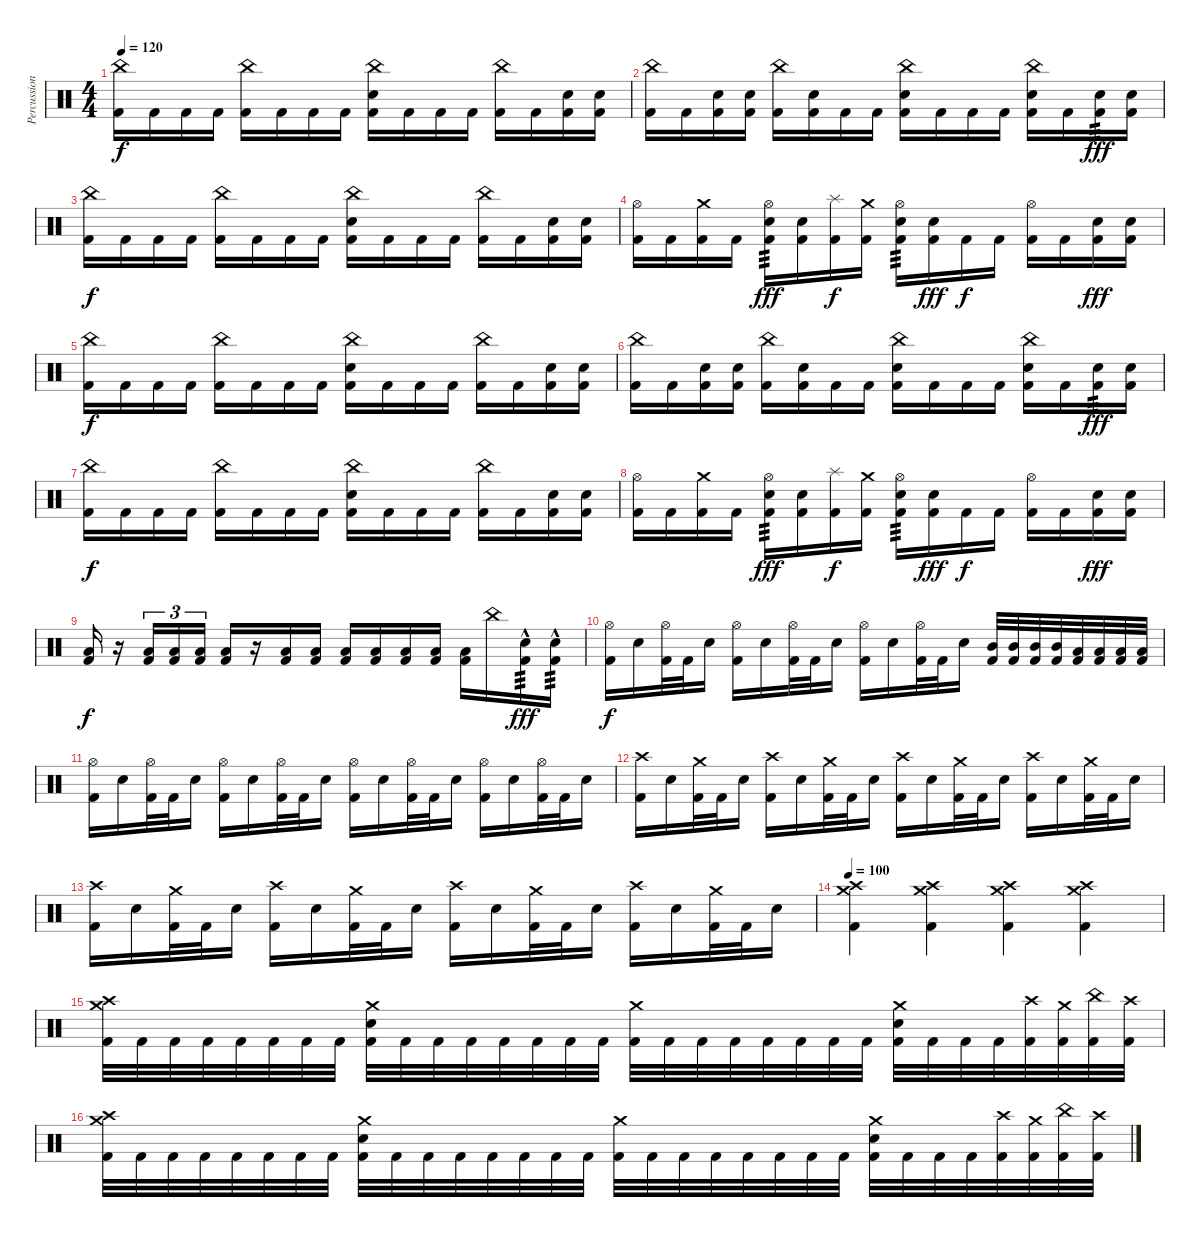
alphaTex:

\track ("Percussion" "Percussion") {instrument percussion}
\staff {score}
\articulation defaults
\ts (4 4)
\tempo 120
\clef neutral
\ks c
("China (hit)" "Kick (hit) 2").16{dy f} "Kick (hit) 2".16 "Kick (hit) 2".16 "Kick (hit) 2".16 ("China (hit)" "Kick (hit) 2").16 "Kick (hit) 2".16 "Kick (hit) 2".16 "Kick (hit) 2".16 ("China (hit)" "Electric Snare (hit)" "Kick (hit) 2").16 "Kick (hit) 2".16 "Kick (hit) 2".16 "Kick (hit) 2".16 ("China (hit)" "Kick (hit) 2").16 "Kick (hit) 2".16 ("Electric Snare (hit)" "Kick (hit) 2").16 ("Electric Snare (hit)" "Kick (hit) 2").16 |
("China (hit)" "Kick (hit) 2").16 "Kick (hit) 2".16 ("Electric Snare (hit)" "Kick (hit) 2").16 ("Electric Snare (hit)" "Kick (hit) 2").16 ("China (hit)" "Kick (hit) 2").16 ("Electric Snare (hit)" "Kick (hit) 2").16 "Kick (hit) 2".16 "Kick (hit) 2".16 ("China (hit)" "Electric Snare (hit)" "Kick (hit) 2").16 "Kick (hit) 2".16 "Kick (hit) 2".16 "Kick (hit) 2".16 ("China (hit)" "Electric Snare (hit)" "Kick (hit) 2").16 "Kick (hit) 2".16 ("Electric Snare (hit)" "Kick (hit) 2").16{tp 3 dy fff} ("Electric Snare (hit)" "Kick (hit) 2").16 |
("China (hit)" "Kick (hit) 2").16{dy f} "Kick (hit) 2".16 "Kick (hit) 2".16 "Kick (hit) 2".16 ("China (hit)" "Kick (hit) 2").16 "Kick (hit) 2".16 "Kick (hit) 2".16 "Kick (hit) 2".16 ("China (hit)" "Electric Snare (hit)" "Kick (hit) 2").16 "Kick (hit) 2".16 "Kick (hit) 2".16 "Kick (hit) 2".16 ("China (hit)" "Kick (hit) 2").16 "Kick (hit) 2".16 ("Electric Snare (hit)" "Kick (hit) 2").16 ("Electric Snare (hit)" "Kick (hit) 2").16 |
("Hi-Hat (open)" "Kick (hit) 2").16 "Kick (hit) 2".16 ("Crash medium (hit)" "Kick (hit) 2").16 "Kick (hit) 2".16 ("Hi-Hat (open)" "Electric Snare (hit)" "Kick (hit) 2").16{tp 3 dy fff} ("Electric Snare (hit)" "Kick (hit) 2").16 ("Splash (hit)" "Kick (hit) 2").16{dy f} ("Crash medium (hit)" "Kick (hit) 2").16 ("Hi-Hat (open)" "Electric Snare (hit)" "Kick (hit) 2").16{tp 3} ("Electric Snare (hit)" "Kick (hit) 2").16{dy fff} "Kick (hit) 2".16{dy f} "Kick (hit) 2".16 ("Hi-Hat (open)" "Kick (hit) 2").16 "Kick (hit) 2".16 ("Electric Snare (hit)" "Kick (hit) 2").16{dy fff} ("Electric Snare (hit)" "Kick (hit) 2").16 |
("China (hit)" "Kick (hit) 2").16{dy f} "Kick (hit) 2".16 "Kick (hit) 2".16 "Kick (hit) 2".16 ("China (hit)" "Kick (hit) 2").16 "Kick (hit) 2".16 "Kick (hit) 2".16 "Kick (hit) 2".16 ("China (hit)" "Electric Snare (hit)" "Kick (hit) 2").16 "Kick (hit) 2".16 "Kick (hit) 2".16 "Kick (hit) 2".16 ("China (hit)" "Kick (hit) 2").16 "Kick (hit) 2".16 ("Electric Snare (hit)" "Kick (hit) 2").16 ("Electric Snare (hit)" "Kick (hit) 2").16 |
("China (hit)" "Kick (hit) 2").16 "Kick (hit) 2".16 ("Electric Snare (hit)" "Kick (hit) 2").16 ("Electric Snare (hit)" "Kick (hit) 2").16 ("China (hit)" "Kick (hit) 2").16 ("Electric Snare (hit)" "Kick (hit) 2").16 "Kick (hit) 2".16 "Kick (hit) 2".16 ("China (hit)" "Electric Snare (hit)" "Kick (hit) 2").16 "Kick (hit) 2".16 "Kick (hit) 2".16 "Kick (hit) 2".16 ("China (hit)" "Electric Snare (hit)" "Kick (hit) 2").16 "Kick (hit) 2".16 ("Electric Snare (hit)" "Kick (hit) 2").16{tp 3 dy fff} ("Electric Snare (hit)" "Kick (hit) 2").16 |
("China (hit)" "Kick (hit) 2").16{dy f} "Kick (hit) 2".16 "Kick (hit) 2".16 "Kick (hit) 2".16 ("China (hit)" "Kick (hit) 2").16 "Kick (hit) 2".16 "Kick (hit) 2".16 "Kick (hit) 2".16 ("China (hit)" "Electric Snare (hit)" "Kick (hit) 2").16 "Kick (hit) 2".16 "Kick (hit) 2".16 "Kick (hit) 2".16 ("China (hit)" "Kick (hit) 2").16 "Kick (hit) 2".16 ("Electric Snare (hit)" "Kick (hit) 2").16 ("Electric Snare (hit)" "Kick (hit) 2").16 |
("Hi-Hat (open)" "Kick (hit) 2").16 "Kick (hit) 2".16 ("Crash medium (hit)" "Kick (hit) 2").16 "Kick (hit) 2".16 ("Hi-Hat (open)" "Electric Snare (hit)" "Kick (hit) 2").16{tp 3 dy fff} ("Electric Snare (hit)" "Kick (hit) 2").16 ("Splash (hit)" "Kick (hit) 2").16{dy f} ("Crash medium (hit)" "Kick (hit) 2").16 ("Hi-Hat (open)" "Electric Snare (hit)" "Kick (hit) 2").16{tp 3} ("Electric Snare (hit)" "Kick (hit) 2").16{dy fff} "Kick (hit) 2".16{dy f} "Kick (hit) 2".16 ("Hi-Hat (open)" "Kick (hit) 2").16 "Kick (hit) 2".16 ("Electric Snare (hit)" "Kick (hit) 2").16{dy fff} ("Electric Snare (hit)" "Kick (hit) 2").16 |
("Low Tom (hit)" "Kick (hit) 2").16{dy f} r.16 ("Low Tom (hit)" "Kick (hit) 2").16{tu (3 2)} ("Low Tom (hit)" "Kick (hit) 2").16{tu (3 2)} ("Low Tom (hit)" "Kick (hit) 2").16{tu (3 2)} ("Low Tom (hit)" "Kick (hit) 2").16 r.16 ("Low Tom (hit)" "Kick (hit) 2").16 ("Low Tom (hit)" "Kick (hit) 2").16 ("Low Tom (hit)" "Kick (hit) 2").16 ("Low Tom (hit)" "Kick (hit) 2").16 ("Low Tom (hit)" "Kick (hit) 2").16 ("Low Tom (hit)" "Kick (hit) 2").16 ("Low Tom (hit)" "Kick (hit) 2").16 "China (hit)".16 ("Electric Snare (hit)"{hac} "Kick (hit) 2").16{tp 3 dy fff} ("Electric Snare (hit)"{hac} "Kick (hit) 2").16{tp 3} |
("Hi-Hat (open)" "Kick (hit) 2").16{dy f} "Electric Snare (hit)".16 ("Hi-Hat (open)" "Kick (hit) 2").32 "Kick (hit) 2".32 "Electric Snare (hit)".16 ("Hi-Hat (open)" "Kick (hit) 2").16 "Electric Snare (hit)".16 ("Hi-Hat (open)" "Kick (hit) 2").32 "Kick (hit) 2".32 "Electric Snare (hit)".16 ("Hi-Hat (open)" "Kick (hit) 2").16 "Electric Snare (hit)".16 ("Hi-Hat (open)" "Kick (hit) 2").32 "Kick (hit) 2".32 "Electric Snare (hit)".16 ("Mid Tom (hit)" "Kick (hit) 2").32 ("Mid Tom (hit)" "Kick (hit) 2").32 ("Mid Tom (hit)" "Kick (hit) 2").32 ("Mid Tom (hit)" "Kick (hit) 2").32 ("Low Tom (hit)" "Kick (hit) 2").32 ("Low Tom (hit)" "Kick (hit) 2").32 ("Low Tom (hit)" "Kick (hit) 2").32 ("Low Tom (hit)" "Kick (hit) 2").32 |
("Hi-Hat (open)" "Kick (hit) 2").16 "Electric Snare (hit)".16 ("Hi-Hat (open)" "Kick (hit) 2").32 "Kick (hit) 2".32 "Electric Snare (hit)".16 ("Hi-Hat (open)" "Kick (hit) 2").16 "Electric Snare (hit)".16 ("Hi-Hat (open)" "Kick (hit) 2").32 "Kick (hit) 2".32 "Electric Snare (hit)".16 ("Hi-Hat (open)" "Kick (hit) 2").16 "Electric Snare (hit)".16 ("Hi-Hat (open)" "Kick (hit) 2").32 "Kick (hit) 2".32 "Electric Snare (hit)".16 ("Hi-Hat (open)" "Kick (hit) 2").16 "Electric Snare (hit)".16 ("Hi-Hat (open)" "Kick (hit) 2").32 "Kick (hit) 2".32 "Electric Snare (hit)".16 |
("Crash high (hit)" "Kick (hit) 2").16 "Electric Snare (hit)".16 ("Crash medium (hit)" "Kick (hit) 2").32 "Kick (hit) 2".32 "Electric Snare (hit)".16 ("Crash high (hit)" "Kick (hit) 2").16 "Electric Snare (hit)".16 ("Crash medium (hit)" "Kick (hit) 2").32 "Kick (hit) 2".32 "Electric Snare (hit)".16 ("Crash high (hit)" "Kick (hit) 2").16 "Electric Snare (hit)".16 ("Crash medium (hit)" "Kick (hit) 2").32 "Kick (hit) 2".32 "Electric Snare (hit)".16 ("Crash high (hit)" "Kick (hit) 2").16 "Electric Snare (hit)".16 ("Crash medium (hit)" "Kick (hit) 2").32 "Kick (hit) 2".32 "Electric Snare (hit)".16 |
("Crash high (hit)" "Kick (hit) 2").16 "Electric Snare (hit)".16 ("Crash medium (hit)" "Kick (hit) 2").32 "Kick (hit) 2".32 "Electric Snare (hit)".16 ("Crash high (hit)" "Kick (hit) 2").16 "Electric Snare (hit)".16 ("Crash medium (hit)" "Kick (hit) 2").32 "Kick (hit) 2".32 "Electric Snare (hit)".16 ("Crash high (hit)" "Kick (hit) 2").16 "Electric Snare (hit)".16 ("Crash medium (hit)" "Kick (hit) 2").32 "Kick (hit) 2".32 "Electric Snare (hit)".16 ("Crash high (hit)" "Kick (hit) 2").16 "Electric Snare (hit)".16 ("Crash medium (hit)" "Kick (hit) 2").32 "Kick (hit) 2".32 "Electric Snare (hit)".16 |
\tempo 100
("Crash medium (hit)" "Crash high (hit)" "Kick (hit) 2").4 ("Crash medium (hit)" "Crash high (hit)" "Kick (hit) 2").4 ("Crash medium (hit)" "Crash high (hit)" "Kick (hit) 2").4 ("Crash medium (hit)" "Crash high (hit)" "Kick (hit) 2").4 |
("Crash medium (hit)" "Crash high (hit)" "Kick (hit) 2").32 "Kick (hit) 2".32 "Kick (hit) 2".32 "Kick (hit) 2".32 "Kick (hit) 2".32 "Kick (hit) 2".32 "Kick (hit) 2".32 "Kick (hit) 2".32 ("Crash medium (hit)" "Electric Snare (hit)" "Kick (hit) 2").32 "Kick (hit) 2".32 "Kick (hit) 2".32 "Kick (hit) 2".32 "Kick (hit) 2".32 "Kick (hit) 2".32 "Kick (hit) 2".32 "Kick (hit) 2".32 ("Crash medium (hit)" "Kick (hit) 2").32 "Kick (hit) 2".32 "Kick (hit) 2".32 "Kick (hit) 2".32 "Kick (hit) 2".32 "Kick (hit) 2".32 "Kick (hit) 2".32 "Kick (hit) 2".32 ("Crash medium (hit)" "Electric Snare (hit)" "Kick (hit) 2").32 "Kick (hit) 2".32 "Kick (hit) 2".32 "Kick (hit) 2".32 ("Crash high (hit)" "Kick (hit) 2").32 ("Crash medium (hit)" "Kick (hit) 2").32 ("China (hit)" "Kick (hit) 2").32 ("Crash high (hit)" "Kick (hit) 2").32 |
("Crash medium (hit)" "Crash high (hit)" "Kick (hit) 2").32 "Kick (hit) 2".32 "Kick (hit) 2".32 "Kick (hit) 2".32 "Kick (hit) 2".32 "Kick (hit) 2".32 "Kick (hit) 2".32 "Kick (hit) 2".32 ("Crash medium (hit)" "Electric Snare (hit)" "Kick (hit) 2").32 "Kick (hit) 2".32 "Kick (hit) 2".32 "Kick (hit) 2".32 "Kick (hit) 2".32 "Kick (hit) 2".32 "Kick (hit) 2".32 "Kick (hit) 2".32 ("Crash medium (hit)" "Kick (hit) 2").32 "Kick (hit) 2".32 "Kick (hit) 2".32 "Kick (hit) 2".32 "Kick (hit) 2".32 "Kick (hit) 2".32 "Kick (hit) 2".32 "Kick (hit) 2".32 ("Crash medium (hit)" "Electric Snare (hit)" "Kick (hit) 2").32 "Kick (hit) 2".32 "Kick (hit) 2".32 "Kick (hit) 2".32 ("Crash high (hit)" "Kick (hit) 2").32 ("Crash medium (hit)" "Kick (hit) 2").32 ("China (hit)" "Kick (hit) 2").32 ("Crash high (hit)" "Kick (hit) 2").32
